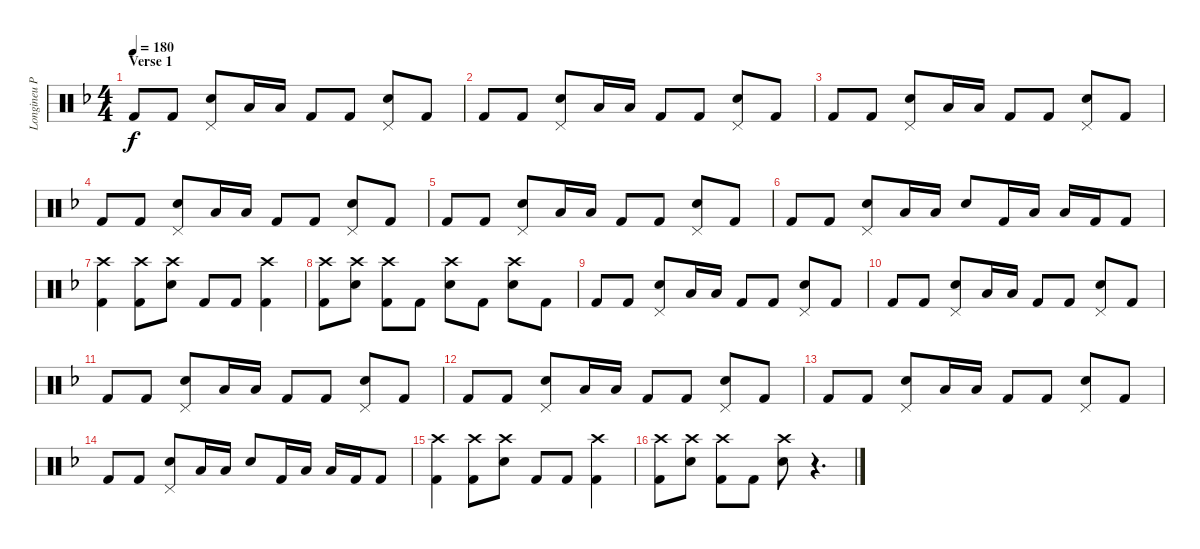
\track ("Longineu Parsons III (Drums 1)" "Longineu P") {instrument percussion}
\staff {score}
\articulation defaults
\ts (4 4)
\section ("" "Verse 1")
\tempo 180
\clef neutral
\ks f "Kick (hit) 2".8{dy f} "Kick (hit) 2".8
("Snare (hit) 2" "Pedal Hi-Hat (hit)").8 "Low Tom (hit)".16 "Low Floor Tom (hit)".16 "Kick (hit) 2".8 "Kick (hit) 2".8 ("Snare (hit) 2" "Pedal Hi-Hat (hit)").8 "Kick (hit) 2".8 |
"Kick (hit) 2".8 "Kick (hit) 2".8 ("Snare (hit) 2" "Pedal Hi-Hat (hit)").8 "Low Tom (hit)".16 "Low Floor Tom (hit)".16 "Kick (hit) 2".8 "Kick (hit) 2".8 ("Snare (hit) 2" "Pedal Hi-Hat (hit)").8 "Kick (hit) 2".8 |
"Kick (hit) 2".8 "Kick (hit) 2".8 ("Snare (hit) 2" "Pedal Hi-Hat (hit)").8 "Low Tom (hit)".16 "Low Floor Tom (hit)".16 "Kick (hit) 2".8 "Kick (hit) 2".8 ("Snare (hit) 2" "Pedal Hi-Hat (hit)").8 "Kick (hit) 2".8 |
"Kick (hit) 2".8 "Kick (hit) 2".8 ("Snare (hit) 2" "Pedal Hi-Hat (hit)").8 "Low Tom (hit)".16 "Low Floor Tom (hit)".16 "Kick (hit) 2".8 "Kick (hit) 2".8 ("Snare (hit) 2" "Pedal Hi-Hat (hit)").8 "Kick (hit) 2".8 |
"Kick (hit) 2".8 "Kick (hit) 2".8 ("Snare (hit) 2" "Pedal Hi-Hat (hit)").8 "Low Tom (hit)".16 "Low Floor Tom (hit)".16 "Kick (hit) 2".8 "Kick (hit) 2".8 ("Snare (hit) 2" "Pedal Hi-Hat (hit)").8 "Kick (hit) 2".8 |
"Kick (hit) 2".8 "Kick (hit) 2".8 ("Snare (hit) 2" "Pedal Hi-Hat (hit)").8 "Low Tom (hit)".16 "Low Floor Tom (hit)".16 "Snare (hit) 2".8 "Kick (hit) 2".16 "Low Tom (hit)".16 "Low Floor Tom (hit)".16 "Kick (hit) 2".16 "Kick (hit) 2".8 |
("Crash high (hit)" "Kick (hit) 2").4 ("Crash high (hit)" "Kick (hit) 2").8 ("Crash high (hit)" "Snare (hit) 2").8 "Kick (hit) 2".8 "Kick (hit) 2".8 ("Crash high (hit)" "Kick (hit) 2").4 |
("Kick (hit) 2" "Crash high (hit)").8 ("Snare (hit) 2" "Crash high (hit)").8 ("Crash high (hit)" "Kick (hit) 2").8 "Kick (hit) 2".8 ("Crash high (hit)" "Snare (hit) 2").8 "Kick (hit) 2".8 ("Crash high (hit)" "Snare (hit) 2").8 "Kick (hit) 2".8 |
"Kick (hit) 2".8 "Kick (hit) 2".8 ("Snare (hit) 2" "Pedal Hi-Hat (hit)").8 "Low Tom (hit)".16 "Low Floor Tom (hit)".16 "Kick (hit) 2".8 "Kick (hit) 2".8 ("Snare (hit) 2" "Pedal Hi-Hat (hit)").8 "Kick (hit) 2".8 |
"Kick (hit) 2".8 "Kick (hit) 2".8 ("Snare (hit) 2" "Pedal Hi-Hat (hit)").8 "Low Tom (hit)".16 "Low Floor Tom (hit)".16 "Kick (hit) 2".8 "Kick (hit) 2".8 ("Snare (hit) 2" "Pedal Hi-Hat (hit)").8 "Kick (hit) 2".8 |
"Kick (hit) 2".8 "Kick (hit) 2".8 ("Snare (hit) 2" "Pedal Hi-Hat (hit)").8 "Low Tom (hit)".16 "Low Floor Tom (hit)".16 "Kick (hit) 2".8 "Kick (hit) 2".8 ("Snare (hit) 2" "Pedal Hi-Hat (hit)").8 "Kick (hit) 2".8 |
"Kick (hit) 2".8 "Kick (hit) 2".8 ("Snare (hit) 2" "Pedal Hi-Hat (hit)").8 "Low Tom (hit)".16 "Low Floor Tom (hit)".16 "Kick (hit) 2".8 "Kick (hit) 2".8 ("Snare (hit) 2" "Pedal Hi-Hat (hit)").8 "Kick (hit) 2".8 |
"Kick (hit) 2".8 "Kick (hit) 2".8 ("Snare (hit) 2" "Pedal Hi-Hat (hit)").8 "Low Tom (hit)".16 "Low Floor Tom (hit)".16 "Kick (hit) 2".8 "Kick (hit) 2".8 ("Snare (hit) 2" "Pedal Hi-Hat (hit)").8 "Kick (hit) 2".8 |
"Kick (hit) 2".8 "Kick (hit) 2".8 ("Snare (hit) 2" "Pedal Hi-Hat (hit)").8 "Low Tom (hit)".16 "Low Floor Tom (hit)".16 "Snare (hit) 2".8 "Kick (hit) 2".16 "Low Tom (hit)".16 "Low Floor Tom (hit)".16 "Kick (hit) 2".16 "Kick (hit) 2".8 |
("Crash high (hit)" "Kick (hit) 2").4 ("Crash high (hit)" "Kick (hit) 2").8 ("Crash high (hit)" "Snare (hit) 2").8 "Kick (hit) 2".8 "Kick (hit) 2".8 ("Crash high (hit)" "Kick (hit) 2").4 |
("Kick (hit) 2" "Crash high (hit)").8 ("Snare (hit) 2" "Crash high (hit)").8 ("Crash high (hit)" "Kick (hit) 2").8 "Kick (hit) 2".8 ("Crash high (hit)" "Snare (hit) 2").8 r.4{d}
